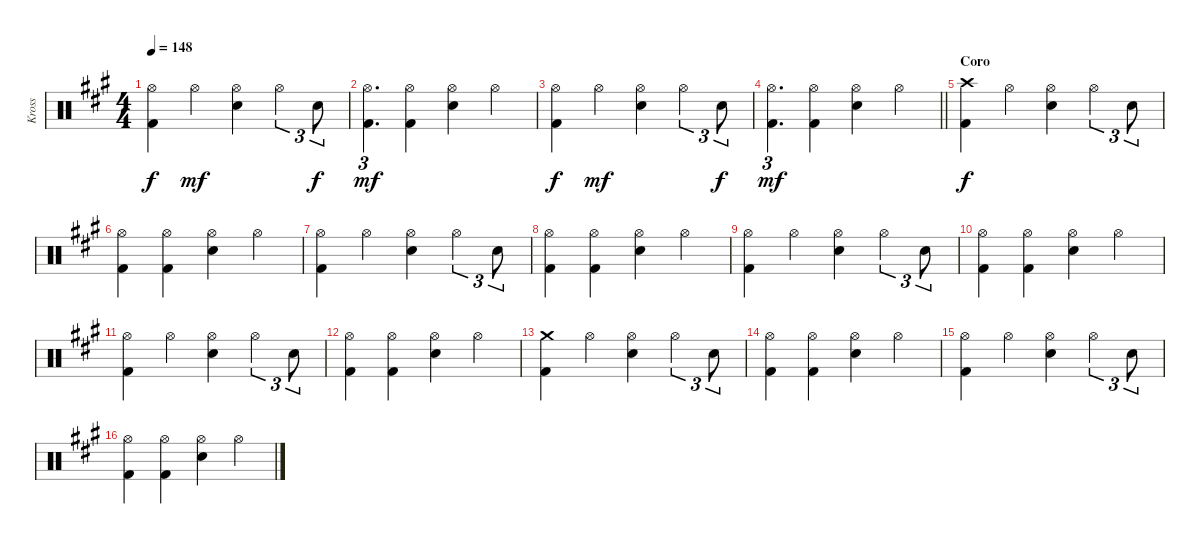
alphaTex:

\track ("Kross" "Kross") {instrument percussion}
\staff {score}
\articulation defaults
\ts (4 4)
\tempo 148
\clef neutral
\ks a
("Hi-Hat (open)" "Kick (hit) 2").4{dy f} "Hi-Hat (open)".4{dy mf} ("Hi-Hat (open)" "Electric Snare (hit)").4 "Hi-Hat (open)".4{tu (3 2)} "Electric Snare (hit)".8{tu (3 2) dy f} |
("Hi-Hat (open)" "Kick (hit) 2").4{d tu (3 2) dy mf} ("Hi-Hat (open)" "Kick (hit) 2").4 ("Hi-Hat (open)" "Electric Snare (hit)").4 "Hi-Hat (open)".4 |
("Hi-Hat (open)" "Kick (hit) 2").4{dy f} "Hi-Hat (open)".4{dy mf} ("Hi-Hat (open)" "Electric Snare (hit)").4 "Hi-Hat (open)".4{tu (3 2)} "Electric Snare (hit)".8{tu (3 2) dy f} |
\barLineRight lightlight
("Hi-Hat (open)" "Kick (hit) 2").4{d tu (3 2) dy mf} ("Hi-Hat (open)" "Kick (hit) 2").4 ("Hi-Hat (open)" "Electric Snare (hit)").4 "Hi-Hat (open)".4 |
\section ("" "Coro")
("Crash high (hit)" "Kick (hit) 2").4{dy f} "Hi-Hat (open)".4 ("Hi-Hat (open)" "Electric Snare (hit)").4 "Hi-Hat (open)".4{tu (3 2)} "Electric Snare (hit)".8{tu (3 2)} |
("Hi-Hat (open)" "Kick (hit) 2").4 ("Hi-Hat (open)" "Kick (hit) 2").4 ("Hi-Hat (open)" "Electric Snare (hit)").4 "Hi-Hat (open)".4 |
("Hi-Hat (open)" "Kick (hit) 2").4 "Hi-Hat (open)".4 ("Hi-Hat (open)" "Electric Snare (hit)").4 "Hi-Hat (open)".4{tu (3 2)} "Electric Snare (hit)".8{tu (3 2)} |
("Hi-Hat (open)" "Kick (hit) 2").4 ("Hi-Hat (open)" "Kick (hit) 2").4 ("Hi-Hat (open)" "Electric Snare (hit)").4 "Hi-Hat (open)".4 |
("Hi-Hat (open)" "Kick (hit) 2").4 "Hi-Hat (open)".4 ("Hi-Hat (open)" "Electric Snare (hit)").4 "Hi-Hat (open)".4{tu (3 2)} "Electric Snare (hit)".8{tu (3 2)} |
("Hi-Hat (open)" "Kick (hit) 2").4 ("Hi-Hat (open)" "Kick (hit) 2").4 ("Hi-Hat (open)" "Electric Snare (hit)").4 "Hi-Hat (open)".4 |
("Hi-Hat (open)" "Kick (hit) 2").4 "Hi-Hat (open)".4 ("Hi-Hat (open)" "Electric Snare (hit)").4 "Hi-Hat (open)".4{tu (3 2)} "Electric Snare (hit)".8{tu (3 2)} |
("Hi-Hat (open)" "Kick (hit) 2").4 ("Hi-Hat (open)" "Kick (hit) 2").4 ("Hi-Hat (open)" "Electric Snare (hit)").4 "Hi-Hat (open)".4 |
("Crash medium (hit)" "Kick (hit) 2").4 "Hi-Hat (open)".4 ("Hi-Hat (open)" "Electric Snare (hit)").4 "Hi-Hat (open)".4{tu (3 2)} "Electric Snare (hit)".8{tu (3 2)} |
("Hi-Hat (open)" "Kick (hit) 2").4 ("Hi-Hat (open)" "Kick (hit) 2").4 ("Hi-Hat (open)" "Electric Snare (hit)").4 "Hi-Hat (open)".4 |
("Hi-Hat (open)" "Kick (hit) 2").4 "Hi-Hat (open)".4 ("Hi-Hat (open)" "Electric Snare (hit)").4 "Hi-Hat (open)".4{tu (3 2)} "Electric Snare (hit)".8{tu (3 2)} |
("Hi-Hat (open)" "Kick (hit) 2").4 ("Hi-Hat (open)" "Kick (hit) 2").4 ("Hi-Hat (open)" "Electric Snare (hit)").4 "Hi-Hat (open)".4
